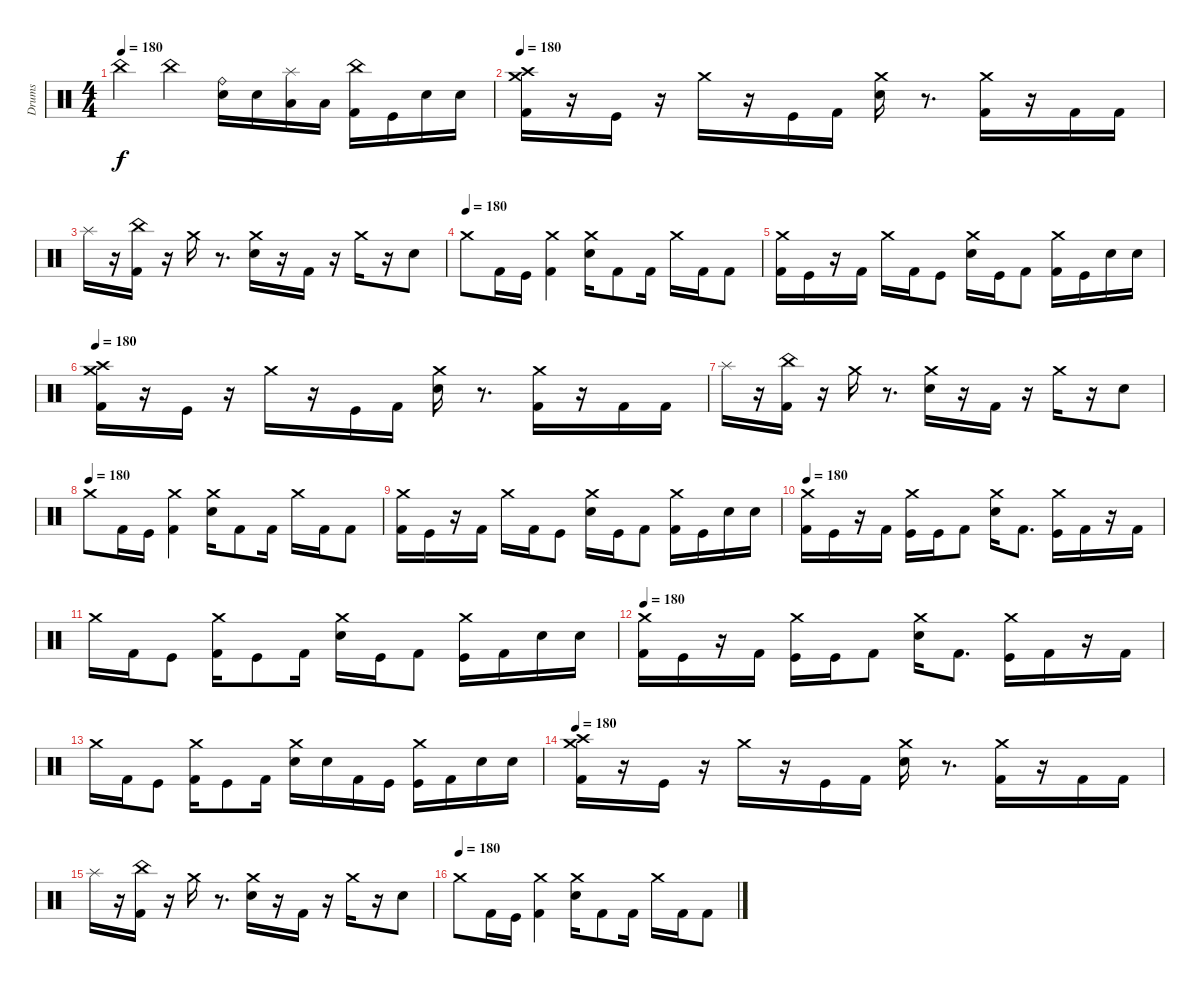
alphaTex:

\track ("Drums" "Drums") {instrument percussion}
\staff {score}
\articulation defaults
\ts (4 4)
\tempo 180
\clef neutral
\ks c "China (hit)".4{dy f} "China (hit)".4
("Ride (bell)" "Electric Snare (hit)").16 "Electric Snare (hit)".16 ("Splash (hit)" "Low Tom (hit)").16 "Low Tom (hit)".16 ("China (hit)" "Kick (hit) 2").16 "Kick (hit)".16 "Electric Snare (hit)".16 "Electric Snare (hit)".16 |
\tempo 180
("Crash high (hit)" "Crash medium (hit)" "Kick (hit) 2").16 r.16 "Kick (hit)".16 r.16 "Crash medium (hit)".16 r.16 "Kick (hit)".16 "Kick (hit) 2".16 ("Crash medium (hit)" "Electric Snare (hit)").16 r.8{d} ("Crash medium (hit)" "Kick (hit) 2").16 r.16 "Kick (hit) 2".16 "Kick (hit) 2".16 |
"Splash (hit)".16 r.16 ("China (hit)" "Kick (hit) 2").16 r.16 "Crash medium (hit)".16 r.8{d} ("Crash medium (hit)" "Electric Snare (hit)").16 r.16 "Kick (hit) 2".16 r.16 "Crash medium (hit)".16 r.16 "Electric Snare (hit)".8 |
\tempo (180)
"Crash medium (hit)".8 "Kick (hit) 2".16 "Kick (hit)".16 ("Crash medium (hit)" "Kick (hit) 2").4 ("Crash medium (hit)" "Electric Snare (hit)").16 "Kick (hit) 2".8 "Kick (hit) 2".16 "Crash medium (hit)".16 "Kick (hit) 2".16 "Kick (hit) 2".8 |
("Crash medium (hit)" "Kick (hit) 2").16 "Kick (hit)".16 r.16 "Kick (hit) 2".16 "Crash medium (hit)".16 "Kick (hit) 2".16 "Kick (hit)".8 ("Crash medium (hit)" "Electric Snare (hit)").16 "Kick (hit)".16 "Kick (hit) 2".8 ("Crash medium (hit)" "Kick (hit) 2").16 "Kick (hit)".16 "Electric Snare (hit)".16 "Electric Snare (hit)".16 |
\tempo 180
("Crash high (hit)" "Crash medium (hit)" "Kick (hit) 2").16 r.16 "Kick (hit)".16 r.16 "Crash medium (hit)".16 r.16 "Kick (hit)".16 "Kick (hit) 2".16 ("Crash medium (hit)" "Electric Snare (hit)").16 r.8{d} ("Crash medium (hit)" "Kick (hit) 2").16 r.16 "Kick (hit) 2".16 "Kick (hit) 2".16 |
"Splash (hit)".16 r.16 ("China (hit)" "Kick (hit) 2").16 r.16 "Crash medium (hit)".16 r.8{d} ("Crash medium (hit)" "Electric Snare (hit)").16 r.16 "Kick (hit) 2".16 r.16 "Crash medium (hit)".16 r.16 "Electric Snare (hit)".8 |
\tempo (180)
"Crash medium (hit)".8 "Kick (hit) 2".16 "Kick (hit)".16 ("Crash medium (hit)" "Kick (hit) 2").4 ("Crash medium (hit)" "Electric Snare (hit)").16 "Kick (hit) 2".8 "Kick (hit) 2".16 "Crash medium (hit)".16 "Kick (hit) 2".16 "Kick (hit) 2".8 |
("Crash medium (hit)" "Kick (hit) 2").16 "Kick (hit)".16 r.16 "Kick (hit) 2".16 "Crash medium (hit)".16 "Kick (hit) 2".16 "Kick (hit)".8 ("Crash medium (hit)" "Electric Snare (hit)").16 "Kick (hit)".16 "Kick (hit) 2".8 ("Crash medium (hit)" "Kick (hit) 2").16 "Kick (hit)".16 "Electric Snare (hit)".16 "Electric Snare (hit)".16 |
\tempo 180
("Crash medium (hit)" "Kick (hit) 2").16 "Kick (hit)".16 r.16 "Kick (hit) 2".16 ("Crash medium (hit)" "Kick (hit)").16 "Kick (hit)".16 "Kick (hit) 2".8 ("Crash medium (hit)" "Electric Snare (hit)").16 "Kick (hit) 2".8{d} ("Crash medium (hit)" "Kick (hit)").16 "Kick (hit) 2".16 r.16 "Kick (hit) 2".16 |
"Crash medium (hit)".16 "Kick (hit) 2".16 "Kick (hit)".8 ("Crash medium (hit)" "Kick (hit) 2").16 "Kick (hit)".8 "Kick (hit) 2".16 ("Crash medium (hit)" "Electric Snare (hit)").16 "Kick (hit)".16 "Kick (hit) 2".8 ("Crash medium (hit)" "Kick (hit)").16 "Kick (hit) 2".16 "Electric Snare (hit)".16 "Electric Snare (hit)".16 |
\tempo 180
("Crash medium (hit)" "Kick (hit) 2").16 "Kick (hit)".16 r.16 "Kick (hit) 2".16 ("Crash medium (hit)" "Kick (hit)").16 "Kick (hit)".16 "Kick (hit) 2".8 ("Crash medium (hit)" "Electric Snare (hit)").16 "Kick (hit) 2".8{d} ("Crash medium (hit)" "Kick (hit)").16 "Kick (hit) 2".16 r.16 "Kick (hit) 2".16 |
"Crash medium (hit)".16 "Kick (hit) 2".16 "Kick (hit)".8 ("Crash medium (hit)" "Kick (hit) 2").16 "Kick (hit)".8 "Kick (hit) 2".16 ("Crash medium (hit)" "Electric Snare (hit)").16 "Electric Snare (hit)".16 "Kick (hit) 2".16 "Kick (hit)".16 ("Crash medium (hit)" "Kick (hit)").16 "Kick (hit) 2".16 "Electric Snare (hit)".16 "Electric Snare (hit)".16 |
\tempo 180
("Crash high (hit)" "Crash medium (hit)" "Kick (hit) 2").16 r.16 "Kick (hit)".16 r.16 "Crash medium (hit)".16 r.16 "Kick (hit)".16 "Kick (hit) 2".16 ("Crash medium (hit)" "Electric Snare (hit)").16 r.8{d} ("Crash medium (hit)" "Kick (hit) 2").16 r.16 "Kick (hit) 2".16 "Kick (hit) 2".16 |
"Splash (hit)".16 r.16 ("China (hit)" "Kick (hit) 2").16 r.16 "Crash medium (hit)".16 r.8{d} ("Crash medium (hit)" "Electric Snare (hit)").16 r.16 "Kick (hit) 2".16 r.16 "Crash medium (hit)".16 r.16 "Electric Snare (hit)".8 |
\tempo (180)
"Crash medium (hit)".8 "Kick (hit) 2".16 "Kick (hit)".16 ("Crash medium (hit)" "Kick (hit) 2").4 ("Crash medium (hit)" "Electric Snare (hit)").16 "Kick (hit) 2".8 "Kick (hit) 2".16 "Crash medium (hit)".16 "Kick (hit) 2".16 "Kick (hit) 2".8
